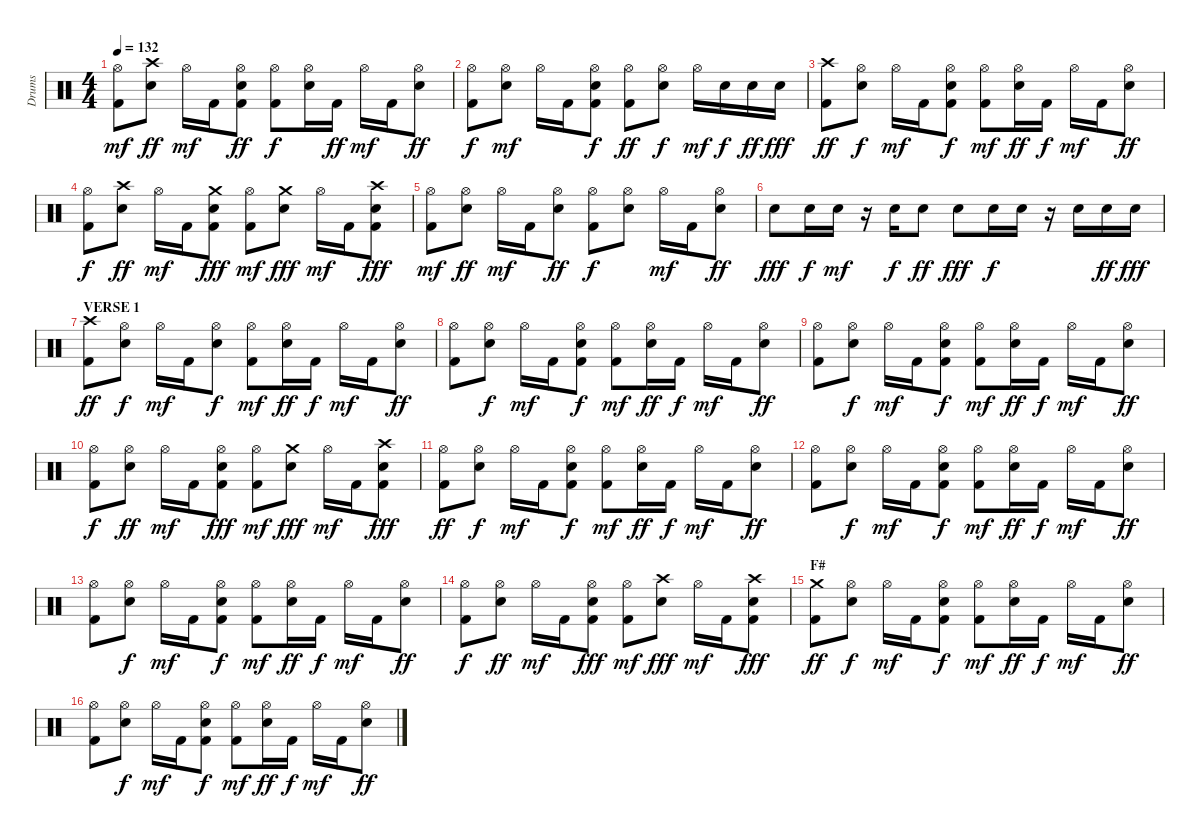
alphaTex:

\track ("Drums" "Drums") {instrument percussion}
\staff {score}
\articulation defaults
\ts (4 4)
\tempo 132
\clef neutral
\ks c
("Hi-Hat (open)" "Kick (hit) 2").8{dy mf} ("Crash high (hit)" "Electric Snare (hit)").8{dy ff} "Hi-Hat (open)".16{dy mf} "Kick (hit) 2".16 ("Hi-Hat (open)" "Electric Snare (hit)" "Kick (hit) 2").8{dy ff} ("Hi-Hat (open)" "Kick (hit) 2").8{dy f} ("Hi-Hat (open)" "Electric Snare (hit)").16 "Kick (hit) 2".16{dy ff} "Hi-Hat (open)".16{dy mf} "Kick (hit) 2".16 ("Hi-Hat (open)" "Electric Snare (hit)").8{dy ff} |
("Hi-Hat (open)" "Kick (hit) 2").8{dy f} ("Hi-Hat (open)" "Electric Snare (hit)").8{dy mf} "Hi-Hat (open)".16 "Kick (hit) 2".16 ("Hi-Hat (open)" "Electric Snare (hit)" "Kick (hit) 2").8{dy f} ("Hi-Hat (open)" "Kick (hit) 2").8{dy ff} ("Hi-Hat (open)" "Electric Snare (hit)").8{dy f} "Hi-Hat (open)".16{dy mf} "Electric Snare (hit)".16{dy f} "Electric Snare (hit)".16{dy ff} "Electric Snare (hit)".16{dy fff} |
("Crash high (hit)" "Kick (hit) 2").8{dy ff} ("Hi-Hat (open)" "Electric Snare (hit)").8{dy f} "Hi-Hat (open)".16{dy mf} "Kick (hit) 2".16 ("Hi-Hat (open)" "Electric Snare (hit)" "Kick (hit) 2").8{dy f} ("Hi-Hat (open)" "Kick (hit) 2").8{dy mf} ("Hi-Hat (open)" "Electric Snare (hit)").16{dy ff} "Kick (hit) 2".16{dy f} "Hi-Hat (open)".16{dy mf} "Kick (hit) 2".16 ("Hi-Hat (open)" "Electric Snare (hit)").8{dy ff} |
("Hi-Hat (open)" "Kick (hit) 2").8{dy f} ("Crash high (hit)" "Electric Snare (hit)").8{dy ff} "Hi-Hat (open)".16{dy mf} "Kick (hit) 2".16 ("Crash medium (hit)" "Electric Snare (hit)" "Kick (hit) 2").8{dy fff} ("Hi-Hat (open)" "Kick (hit) 2").8{dy mf} ("Crash medium (hit)" "Electric Snare (hit)").8{dy fff} "Hi-Hat (open)".16{dy mf} "Kick (hit) 2".16 ("Crash high (hit)" "Electric Snare (hit)" "Kick (hit) 2").8{dy fff} |
("Hi-Hat (open)" "Kick (hit) 2").8{dy mf} ("Hi-Hat (open)" "Electric Snare (hit)").8{dy ff} "Hi-Hat (open)".16{dy mf} "Kick (hit) 2".16 ("Hi-Hat (open)" "Electric Snare (hit)").8{dy ff} ("Hi-Hat (open)" "Kick (hit) 2").8{dy f} ("Hi-Hat (open)" "Electric Snare (hit)").8 "Hi-Hat (open)".16{dy mf} "Kick (hit) 2".16 ("Hi-Hat (open)" "Electric Snare (hit)").8{dy ff} |
"Electric Snare (hit)".8{dy fff} "Electric Snare (hit)".16{dy f} "Electric Snare (hit)".16{dy mf} r.16 "Electric Snare (hit)".16{dy f} "Electric Snare (hit)".8{dy ff} "Electric Snare (hit)".8{dy fff} "Electric Snare (hit)".16{dy f} "Electric Snare (hit)".16 r.16 "Electric Snare (hit)".16 "Electric Snare (hit)".16{dy ff} "Electric Snare (hit)".16{dy fff} |
\section ("" "VERSE 1")
("Crash high (hit)" "Kick (hit) 2").8{dy ff} ("Hi-Hat (open)" "Electric Snare (hit)").8{dy f} "Hi-Hat (open)".16{dy mf} "Kick (hit) 2".16 ("Hi-Hat (open)" "Electric Snare (hit)").8{dy f} ("Hi-Hat (open)" "Kick (hit) 2").8{dy mf} ("Hi-Hat (open)" "Electric Snare (hit)").16{dy ff} "Kick (hit) 2".16{dy f} "Hi-Hat (open)".16{dy mf} "Kick (hit) 2".16 ("Hi-Hat (open)" "Electric Snare (hit)").8{dy ff} |
("Hi-Hat (open)" "Kick (hit) 2").8 ("Hi-Hat (open)" "Electric Snare (hit)").8{dy f} "Hi-Hat (open)".16{dy mf} "Kick (hit) 2".16 ("Hi-Hat (open)" "Electric Snare (hit)" "Kick (hit) 2").8{dy f} ("Hi-Hat (open)" "Kick (hit) 2").8{dy mf} ("Hi-Hat (open)" "Electric Snare (hit)").16{dy ff} "Kick (hit) 2".16{dy f} "Hi-Hat (open)".16{dy mf} "Kick (hit) 2".16 ("Hi-Hat (open)" "Electric Snare (hit)").8{dy ff} |
("Hi-Hat (open)" "Kick (hit) 2").8 ("Hi-Hat (open)" "Electric Snare (hit)").8{dy f} "Hi-Hat (open)".16{dy mf} "Kick (hit) 2".16 ("Hi-Hat (open)" "Electric Snare (hit)" "Kick (hit) 2").8{dy f} ("Hi-Hat (open)" "Kick (hit) 2").8{dy mf} ("Hi-Hat (open)" "Electric Snare (hit)").16{dy ff} "Kick (hit) 2".16{dy f} "Hi-Hat (open)".16{dy mf} "Kick (hit) 2".16 ("Hi-Hat (open)" "Electric Snare (hit)").8{dy ff} |
("Hi-Hat (open)" "Kick (hit) 2").8{dy f} ("Hi-Hat (open)" "Electric Snare (hit)").8{dy ff} "Hi-Hat (open)".16{dy mf} "Kick (hit) 2".16 ("Hi-Hat (open)" "Electric Snare (hit)" "Kick (hit) 2").8{dy fff} ("Hi-Hat (open)" "Kick (hit) 2").8{dy mf} ("Crash medium (hit)" "Electric Snare (hit)").8{dy fff} "Hi-Hat (open)".16{dy mf} "Kick (hit) 2".16 ("Crash high (hit)" "Electric Snare (hit)" "Kick (hit) 2").8{dy fff} |
("Hi-Hat (open)" "Kick (hit) 2").8{dy ff} ("Hi-Hat (open)" "Electric Snare (hit)").8{dy f} "Hi-Hat (open)".16{dy mf} "Kick (hit) 2".16 ("Hi-Hat (open)" "Electric Snare (hit)" "Kick (hit) 2").8{dy f} ("Hi-Hat (open)" "Kick (hit) 2").8{dy mf} ("Hi-Hat (open)" "Electric Snare (hit)").16{dy ff} "Kick (hit) 2".16{dy f} "Hi-Hat (open)".16{dy mf} "Kick (hit) 2".16 ("Hi-Hat (open)" "Electric Snare (hit)").8{dy ff} |
("Hi-Hat (open)" "Kick (hit) 2").8 ("Hi-Hat (open)" "Electric Snare (hit)").8{dy f} "Hi-Hat (open)".16{dy mf} "Kick (hit) 2".16 ("Hi-Hat (open)" "Electric Snare (hit)" "Kick (hit) 2").8{dy f} ("Hi-Hat (open)" "Kick (hit) 2").8{dy mf} ("Hi-Hat (open)" "Electric Snare (hit)").16{dy ff} "Kick (hit) 2".16{dy f} "Hi-Hat (open)".16{dy mf} "Kick (hit) 2".16 ("Hi-Hat (open)" "Electric Snare (hit)").8{dy ff} |
("Hi-Hat (open)" "Kick (hit) 2").8 ("Hi-Hat (open)" "Electric Snare (hit)").8{dy f} "Hi-Hat (open)".16{dy mf} "Kick (hit) 2".16 ("Hi-Hat (open)" "Electric Snare (hit)" "Kick (hit) 2").8{dy f} ("Hi-Hat (open)" "Kick (hit) 2").8{dy mf} ("Hi-Hat (open)" "Electric Snare (hit)").16{dy ff} "Kick (hit) 2".16{dy f} "Hi-Hat (open)".16{dy mf} "Kick (hit) 2".16 ("Hi-Hat (open)" "Electric Snare (hit)").8{dy ff} |
("Hi-Hat (open)" "Kick (hit) 2").8{dy f} ("Hi-Hat (open)" "Electric Snare (hit)").8{dy ff} "Hi-Hat (open)".16{dy mf} "Kick (hit) 2".16 ("Hi-Hat (open)" "Electric Snare (hit)" "Kick (hit) 2").8{dy fff} ("Hi-Hat (open)" "Kick (hit) 2").8{dy mf} ("Crash high (hit)" "Electric Snare (hit)").8{dy fff} "Hi-Hat (open)".16{dy mf} "Kick (hit) 2".16 ("Crash high (hit)" "Electric Snare (hit)" "Kick (hit) 2").8{dy fff} |
\section ("" "F#")
("Crash medium (hit)" "Kick (hit) 2").8{dy ff} ("Hi-Hat (open)" "Electric Snare (hit)").8{dy f} "Hi-Hat (open)".16{dy mf} "Kick (hit) 2".16 ("Hi-Hat (open)" "Electric Snare (hit)" "Kick (hit) 2").8{dy f} ("Hi-Hat (open)" "Kick (hit) 2").8{dy mf} ("Hi-Hat (open)" "Electric Snare (hit)").16{dy ff} "Kick (hit) 2".16{dy f} "Hi-Hat (open)".16{dy mf} "Kick (hit) 2".16 ("Hi-Hat (open)" "Electric Snare (hit)").8{dy ff} |
("Hi-Hat (open)" "Kick (hit) 2").8 ("Hi-Hat (open)" "Electric Snare (hit)").8{dy f} "Hi-Hat (open)".16{dy mf} "Kick (hit) 2".16 ("Hi-Hat (open)" "Electric Snare (hit)" "Kick (hit) 2").8{dy f} ("Hi-Hat (open)" "Kick (hit) 2").8{dy mf} ("Hi-Hat (open)" "Electric Snare (hit)").16{dy ff} "Kick (hit) 2".16{dy f} "Hi-Hat (open)".16{dy mf} "Kick (hit) 2".16 ("Hi-Hat (open)" "Electric Snare (hit)").8{dy ff}
